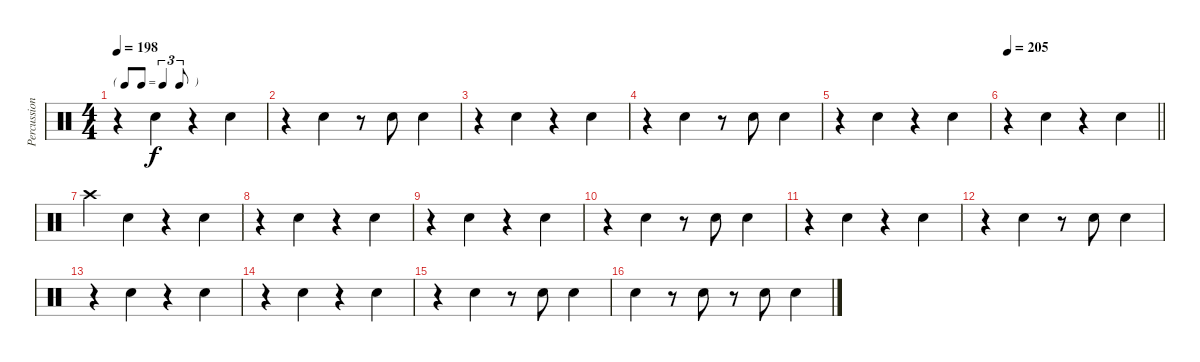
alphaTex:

\track ("Percussion" "Percussion") {instrument percussion}
\staff {score}
\articulation defaults
\ts (4 4)
\tf triplet8th
\tempo 198
\clef neutral
\ks c
r.4{dy f} "Snare (hit) 2".4 r.4 "Snare (hit) 2".4 |
r.4 "Snare (hit) 2".4 r.8 "Snare (hit) 2".8 "Snare (hit) 2".4 |
r.4 "Snare (hit) 2".4 r.4 "Snare (hit) 2".4 |
r.4 "Snare (hit) 2".4 r.8 "Snare (hit) 2".8 "Snare (hit) 2".4 |
r.4 "Snare (hit) 2".4 r.4 "Snare (hit) 2".4 |
\tempo 205
\barLineRight lightlight
r.4 "Snare (hit) 2".4 r.4 "Snare (hit) 2".4 |
"Crash high (hit)".4 "Snare (hit) 2".4 r.4 "Snare (hit) 2".4 |
r.4 "Snare (hit) 2".4 r.4 "Snare (hit) 2".4 |
r.4 "Snare (hit) 2".4 r.4 "Snare (hit) 2".4 |
r.4 "Snare (hit) 2".4 r.8 "Snare (hit) 2".8 "Snare (hit) 2".4 |
r.4 "Snare (hit) 2".4 r.4 "Snare (hit) 2".4 |
r.4 "Snare (hit) 2".4 r.8 "Snare (hit) 2".8 "Snare (hit) 2".4 |
r.4 "Snare (hit) 2".4 r.4 "Snare (hit) 2".4 |
r.4 "Snare (hit) 2".4 r.4 "Snare (hit) 2".4 |
r.4 "Snare (hit) 2".4 r.8 "Snare (hit) 2".8 "Snare (hit) 2".4 |
"Snare (hit) 2".4 r.8 "Snare (hit) 2".8 r.8 "Snare (hit) 2".8 "Snare (hit) 2".4
